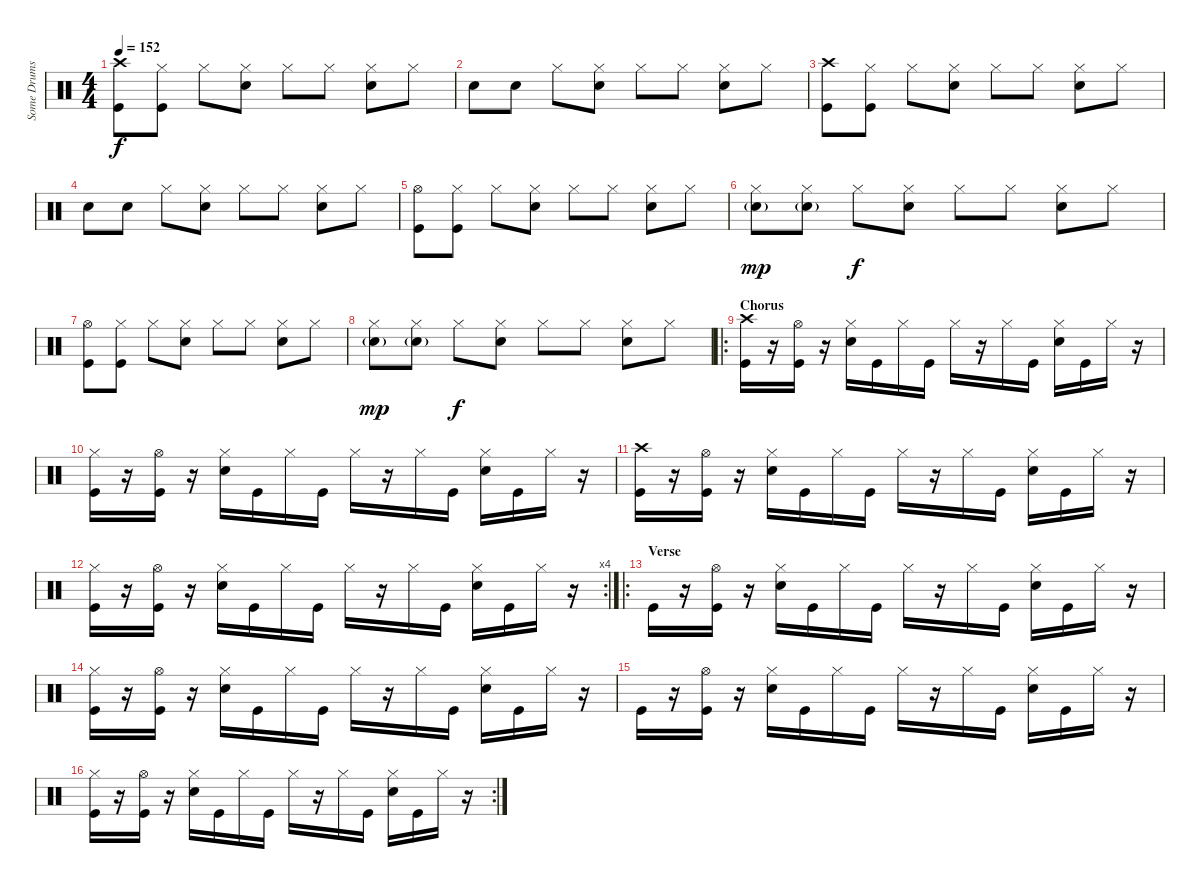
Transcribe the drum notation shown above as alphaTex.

\track ("Some Drums" "Some Drums") {instrument percussion}
\staff {score}
\articulation defaults
\ts (4 4)
\tempo 152
\clef neutral
\ks c
("Crash high (hit)" "Kick (hit)").8{dy f} ("Hi-Hat (closed)" "Kick (hit)").8 "Hi-Hat (closed)".8 ("Hi-Hat (closed)" "Electric Snare (hit)").8 "Hi-Hat (closed)".8 "Hi-Hat (closed)".8 ("Hi-Hat (closed)" "Electric Snare (hit)").8 "Hi-Hat (closed)".8 |
"Electric Snare (hit)".8 "Electric Snare (hit)".8 "Hi-Hat (closed)".8 ("Hi-Hat (closed)" "Electric Snare (hit)").8 "Hi-Hat (closed)".8 "Hi-Hat (closed)".8 ("Hi-Hat (closed)" "Electric Snare (hit)").8 "Hi-Hat (closed)".8 |
("Crash high (hit)" "Kick (hit)").8 ("Hi-Hat (closed)" "Kick (hit)").8 "Hi-Hat (closed)".8 ("Hi-Hat (closed)" "Electric Snare (hit)").8 "Hi-Hat (closed)".8 "Hi-Hat (closed)".8 ("Hi-Hat (closed)" "Electric Snare (hit)").8 "Hi-Hat (closed)".8 |
"Electric Snare (hit)".8 "Electric Snare (hit)".8 "Hi-Hat (closed)".8 ("Hi-Hat (closed)" "Electric Snare (hit)").8 "Hi-Hat (closed)".8 "Hi-Hat (closed)".8 ("Hi-Hat (closed)" "Electric Snare (hit)").8 "Hi-Hat (closed)".8 |
("Hi-Hat (open)" "Kick (hit)").8 ("Hi-Hat (closed)" "Kick (hit)").8 "Hi-Hat (closed)".8 ("Hi-Hat (closed)" "Electric Snare (hit)").8 "Hi-Hat (closed)".8 "Hi-Hat (closed)".8 ("Hi-Hat (closed)" "Electric Snare (hit)").8 "Hi-Hat (closed)".8 |
("Hi-Hat (closed)" "Electric Snare (hit)"{g}).8{dy mp} ("Hi-Hat (closed)" "Electric Snare (hit)"{g}).8 "Hi-Hat (closed)".8{dy f} ("Hi-Hat (closed)" "Electric Snare (hit)").8 "Hi-Hat (closed)".8 "Hi-Hat (closed)".8 ("Hi-Hat (closed)" "Electric Snare (hit)").8 "Hi-Hat (closed)".8 |
("Hi-Hat (open)" "Kick (hit)").8 ("Hi-Hat (closed)" "Kick (hit)").8 "Hi-Hat (closed)".8 ("Hi-Hat (closed)" "Electric Snare (hit)").8 "Hi-Hat (closed)".8 "Hi-Hat (closed)".8 ("Hi-Hat (closed)" "Electric Snare (hit)").8 "Hi-Hat (closed)".8 |
("Hi-Hat (closed)" "Electric Snare (hit)"{g}).8{dy mp} ("Hi-Hat (closed)" "Electric Snare (hit)"{g}).8 "Hi-Hat (closed)".8{dy f} ("Hi-Hat (closed)" "Electric Snare (hit)").8 "Hi-Hat (closed)".8 "Hi-Hat (closed)".8 ("Hi-Hat (closed)" "Electric Snare (hit)").8 "Hi-Hat (closed)".8 |
\ro
\section ("" "Chorus")
("Crash high (hit)" "Kick (hit)").16 r.16 ("Hi-Hat (open)" "Kick (hit)").16 r.16 ("Hi-Hat (closed)" "Electric Snare (hit)").16 "Kick (hit)".16 "Hi-Hat (closed)".16 "Kick (hit)".16 "Hi-Hat (closed)".16 r.16 "Hi-Hat (closed)".16 "Kick (hit)".16 ("Hi-Hat (closed)" "Electric Snare (hit)").16 "Kick (hit)".16 "Hi-Hat (closed)".16 r.16 |
("Hi-Hat (closed)" "Kick (hit)").16 r.16 ("Hi-Hat (open)" "Kick (hit)").16 r.16 ("Hi-Hat (closed)" "Electric Snare (hit)").16 "Kick (hit)".16 "Hi-Hat (closed)".16 "Kick (hit)".16 "Hi-Hat (closed)".16 r.16 "Hi-Hat (closed)".16 "Kick (hit)".16 ("Hi-Hat (closed)" "Electric Snare (hit)").16 "Kick (hit)".16 "Hi-Hat (closed)".16 r.16 |
("Crash high (hit)" "Kick (hit)").16 r.16 ("Hi-Hat (open)" "Kick (hit)").16 r.16 ("Hi-Hat (closed)" "Electric Snare (hit)").16 "Kick (hit)".16 "Hi-Hat (closed)".16 "Kick (hit)".16 "Hi-Hat (closed)".16 r.16 "Hi-Hat (closed)".16 "Kick (hit)".16 ("Hi-Hat (closed)" "Electric Snare (hit)").16 "Kick (hit)".16 "Hi-Hat (closed)".16 r.16 |
\rc 4
("Hi-Hat (closed)" "Kick (hit)").16 r.16 ("Hi-Hat (open)" "Kick (hit)").16 r.16 ("Hi-Hat (closed)" "Electric Snare (hit)").16 "Kick (hit)".16 "Hi-Hat (closed)".16 "Kick (hit)".16 "Hi-Hat (closed)".16 r.16 "Hi-Hat (closed)".16 "Kick (hit)".16 ("Hi-Hat (closed)" "Electric Snare (hit)").16 "Kick (hit)".16 "Hi-Hat (closed)".16 r.16 |
\ro
\section ("" "Verse")
"Kick (hit)".16 r.16 ("Hi-Hat (open)" "Kick (hit)").16 r.16 ("Hi-Hat (closed)" "Electric Snare (hit)").16 "Kick (hit)".16 "Hi-Hat (closed)".16 "Kick (hit)".16 "Hi-Hat (closed)".16 r.16 "Hi-Hat (closed)".16 "Kick (hit)".16 ("Hi-Hat (closed)" "Electric Snare (hit)").16 "Kick (hit)".16 "Hi-Hat (closed)".16 r.16 |
("Hi-Hat (closed)" "Kick (hit)").16 r.16 ("Hi-Hat (open)" "Kick (hit)").16 r.16 ("Hi-Hat (closed)" "Electric Snare (hit)").16 "Kick (hit)".16 "Hi-Hat (closed)".16 "Kick (hit)".16 "Hi-Hat (closed)".16 r.16 "Hi-Hat (closed)".16 "Kick (hit)".16 ("Hi-Hat (closed)" "Electric Snare (hit)").16 "Kick (hit)".16 "Hi-Hat (closed)".16 r.16 |
"Kick (hit)".16 r.16 ("Hi-Hat (open)" "Kick (hit)").16 r.16 ("Hi-Hat (closed)" "Electric Snare (hit)").16 "Kick (hit)".16 "Hi-Hat (closed)".16 "Kick (hit)".16 "Hi-Hat (closed)".16 r.16 "Hi-Hat (closed)".16 "Kick (hit)".16 ("Hi-Hat (closed)" "Electric Snare (hit)").16 "Kick (hit)".16 "Hi-Hat (closed)".16 r.16 |
\rc 2
("Hi-Hat (closed)" "Kick (hit)").16 r.16 ("Hi-Hat (open)" "Kick (hit)").16 r.16 ("Hi-Hat (closed)" "Electric Snare (hit)").16 "Kick (hit)".16 "Hi-Hat (closed)".16 "Kick (hit)".16 "Hi-Hat (closed)".16 r.16 "Hi-Hat (closed)".16 "Kick (hit)".16 ("Hi-Hat (closed)" "Electric Snare (hit)").16 "Kick (hit)".16 "Hi-Hat (closed)".16 r.16
